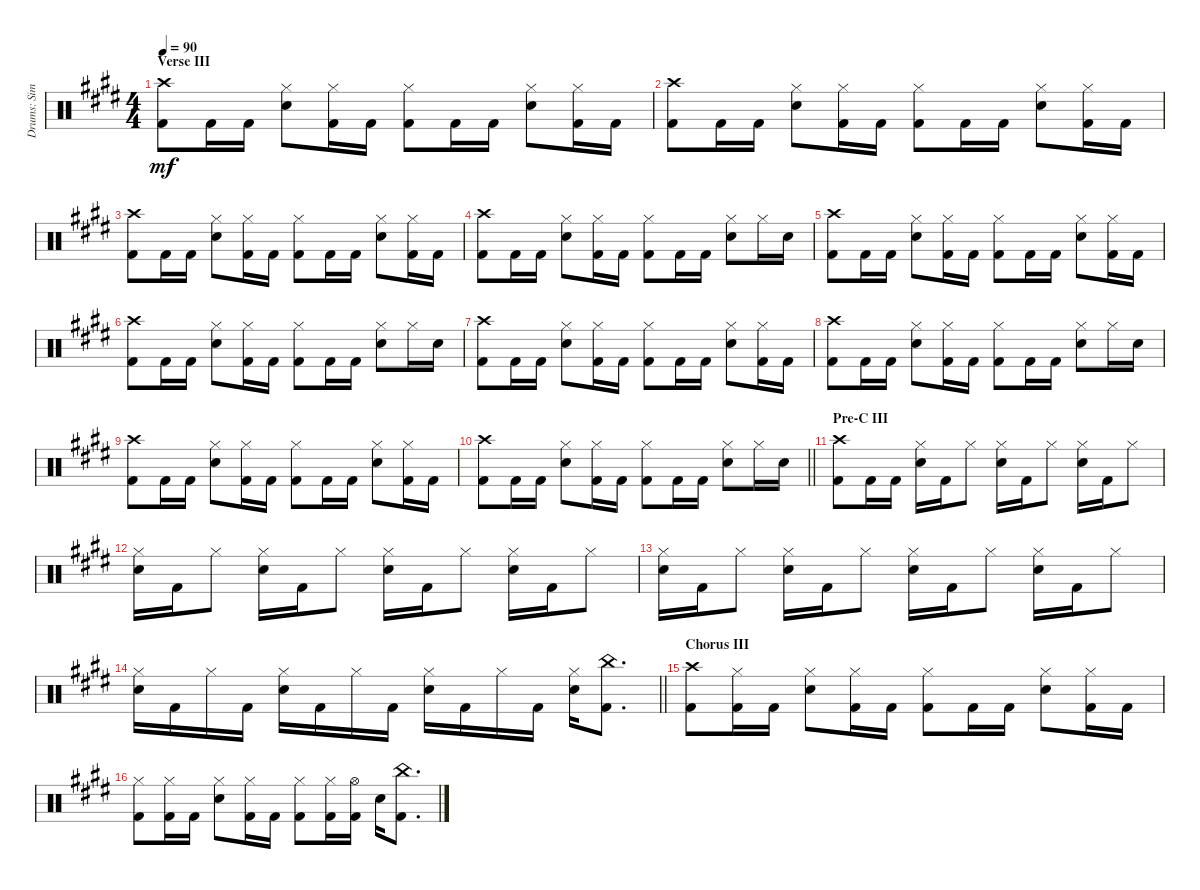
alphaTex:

\track ("Drums: Simon" "Drums: Sim") {instrument percussion}
\staff {score}
\articulation defaults
\ts (4 4)
\section ("" "Verse III")
\tempo 90
\clef neutral
\ks e
("Crash high (hit)" "Kick (hit) 2").8{dy mf} "Kick (hit) 2".16 "Kick (hit) 2".16 ("Hi-Hat (closed)" "Electric Snare (hit)").8 ("Hi-Hat (closed)" "Kick (hit) 2").16 "Kick (hit) 2".16 ("Hi-Hat (closed)" "Kick (hit) 2").8 "Kick (hit) 2".16 "Kick (hit) 2".16 ("Hi-Hat (closed)" "Electric Snare (hit)").8 ("Hi-Hat (closed)" "Kick (hit) 2").16 "Kick (hit) 2".16 |
("Crash high (hit)" "Kick (hit) 2").8 "Kick (hit) 2".16 "Kick (hit) 2".16 ("Hi-Hat (closed)" "Electric Snare (hit)").8 ("Hi-Hat (closed)" "Kick (hit) 2").16 "Kick (hit) 2".16 ("Hi-Hat (closed)" "Kick (hit) 2").8 "Kick (hit) 2".16 "Kick (hit) 2".16 ("Hi-Hat (closed)" "Electric Snare (hit)").8 ("Hi-Hat (closed)" "Kick (hit) 2").16 "Kick (hit) 2".16 |
("Crash high (hit)" "Kick (hit) 2").8 "Kick (hit) 2".16 "Kick (hit) 2".16 ("Hi-Hat (closed)" "Electric Snare (hit)").8 ("Hi-Hat (closed)" "Kick (hit) 2").16 "Kick (hit) 2".16 ("Hi-Hat (closed)" "Kick (hit) 2").8 "Kick (hit) 2".16 "Kick (hit) 2".16 ("Hi-Hat (closed)" "Electric Snare (hit)").8 ("Hi-Hat (closed)" "Kick (hit) 2").16 "Kick (hit) 2".16 |
("Crash high (hit)" "Kick (hit) 2").8 "Kick (hit) 2".16 "Kick (hit) 2".16 ("Hi-Hat (closed)" "Electric Snare (hit)").8 ("Hi-Hat (closed)" "Kick (hit) 2").16 "Kick (hit) 2".16 ("Hi-Hat (closed)" "Kick (hit) 2").8 "Kick (hit) 2".16 "Kick (hit) 2".16 ("Hi-Hat (closed)" "Electric Snare (hit)").8 "Hi-Hat (closed)".16 "Electric Snare (hit)".16 |
("Crash high (hit)" "Kick (hit) 2").8 "Kick (hit) 2".16 "Kick (hit) 2".16 ("Hi-Hat (closed)" "Electric Snare (hit)").8 ("Hi-Hat (closed)" "Kick (hit) 2").16 "Kick (hit) 2".16 ("Hi-Hat (closed)" "Kick (hit) 2").8 "Kick (hit) 2".16 "Kick (hit) 2".16 ("Hi-Hat (closed)" "Electric Snare (hit)").8 ("Hi-Hat (closed)" "Kick (hit) 2").16 "Kick (hit) 2".16 |
("Crash high (hit)" "Kick (hit) 2").8 "Kick (hit) 2".16 "Kick (hit) 2".16 ("Hi-Hat (closed)" "Electric Snare (hit)").8 ("Hi-Hat (closed)" "Kick (hit) 2").16 "Kick (hit) 2".16 ("Hi-Hat (closed)" "Kick (hit) 2").8 "Kick (hit) 2".16 "Kick (hit) 2".16 ("Hi-Hat (closed)" "Electric Snare (hit)").8 "Hi-Hat (closed)".16 "Electric Snare (hit)".16 |
("Crash high (hit)" "Kick (hit) 2").8 "Kick (hit) 2".16 "Kick (hit) 2".16 ("Hi-Hat (closed)" "Electric Snare (hit)").8 ("Hi-Hat (closed)" "Kick (hit) 2").16 "Kick (hit) 2".16 ("Hi-Hat (closed)" "Kick (hit) 2").8 "Kick (hit) 2".16 "Kick (hit) 2".16 ("Hi-Hat (closed)" "Electric Snare (hit)").8 ("Hi-Hat (closed)" "Kick (hit) 2").16 "Kick (hit) 2".16 |
("Crash high (hit)" "Kick (hit) 2").8 "Kick (hit) 2".16 "Kick (hit) 2".16 ("Hi-Hat (closed)" "Electric Snare (hit)").8 ("Hi-Hat (closed)" "Kick (hit) 2").16 "Kick (hit) 2".16 ("Hi-Hat (closed)" "Kick (hit) 2").8 "Kick (hit) 2".16 "Kick (hit) 2".16 ("Hi-Hat (closed)" "Electric Snare (hit)").8 "Hi-Hat (closed)".16 "Electric Snare (hit)".16 |
("Crash high (hit)" "Kick (hit) 2").8 "Kick (hit) 2".16 "Kick (hit) 2".16 ("Hi-Hat (closed)" "Electric Snare (hit)").8 ("Hi-Hat (closed)" "Kick (hit) 2").16 "Kick (hit) 2".16 ("Hi-Hat (closed)" "Kick (hit) 2").8 "Kick (hit) 2".16 "Kick (hit) 2".16 ("Hi-Hat (closed)" "Electric Snare (hit)").8 ("Hi-Hat (closed)" "Kick (hit) 2").16 "Kick (hit) 2".16 |
\barLineRight lightlight
("Crash high (hit)" "Kick (hit) 2").8 "Kick (hit) 2".16 "Kick (hit) 2".16 ("Hi-Hat (closed)" "Electric Snare (hit)").8 ("Hi-Hat (closed)" "Kick (hit) 2").16 "Kick (hit) 2".16 ("Hi-Hat (closed)" "Kick (hit) 2").8 "Kick (hit) 2".16 "Kick (hit) 2".16 ("Hi-Hat (closed)" "Electric Snare (hit)").8 "Hi-Hat (closed)".16 "Electric Snare (hit)".16 |
\section ("" "Pre-C III")
("Crash high (hit)" "Kick (hit) 2").8 "Kick (hit) 2".16 "Kick (hit) 2".16 ("Hi-Hat (closed)" "Electric Snare (hit)").16 "Kick (hit) 2".16 "Hi-Hat (closed)".8 ("Hi-Hat (closed)" "Electric Snare (hit)").16 "Kick (hit) 2".16 "Hi-Hat (closed)".8 ("Hi-Hat (closed)" "Electric Snare (hit)").16 "Kick (hit) 2".16 "Hi-Hat (closed)".8 |
("Hi-Hat (closed)" "Electric Snare (hit)").16 "Kick (hit) 2".16 "Hi-Hat (closed)".8 ("Hi-Hat (closed)" "Electric Snare (hit)").16 "Kick (hit) 2".16 "Hi-Hat (closed)".8 ("Hi-Hat (closed)" "Electric Snare (hit)").16 "Kick (hit) 2".16 "Hi-Hat (closed)".8 ("Hi-Hat (closed)" "Electric Snare (hit)").16 "Kick (hit) 2".16 "Hi-Hat (closed)".8 |
("Hi-Hat (closed)" "Electric Snare (hit)").16 "Kick (hit) 2".16 "Hi-Hat (closed)".8 ("Hi-Hat (closed)" "Electric Snare (hit)").16 "Kick (hit) 2".16 "Hi-Hat (closed)".8 ("Hi-Hat (closed)" "Electric Snare (hit)").16 "Kick (hit) 2".16 "Hi-Hat (closed)".8 ("Hi-Hat (closed)" "Electric Snare (hit)").16 "Kick (hit) 2".16 "Hi-Hat (closed)".8 |
\barLineRight lightlight
("Hi-Hat (closed)" "Electric Snare (hit)").16 "Kick (hit) 2".16 "Hi-Hat (closed)".16 "Kick (hit) 2".16 ("Hi-Hat (closed)" "Electric Snare (hit)").16 "Kick (hit) 2".16 "Hi-Hat (closed)".16 "Kick (hit) 2".16 ("Hi-Hat (closed)" "Electric Snare (hit)").16 "Kick (hit) 2".16 "Hi-Hat (closed)".16 "Kick (hit) 2".16 ("Hi-Hat (closed)" "Electric Snare (hit)").16 ("China (hit)" "Kick (hit) 2").8{d} |
\section ("" "Chorus III")
("Crash high (hit)" "Kick (hit) 2").8 ("Hi-Hat (closed)" "Kick (hit) 2").16 "Kick (hit) 2".16 ("Hi-Hat (closed)" "Electric Snare (hit)").8 ("Hi-Hat (closed)" "Kick (hit) 2").16 "Kick (hit) 2".16 ("Hi-Hat (closed)" "Kick (hit) 2").8 "Kick (hit) 2".16 "Kick (hit) 2".16 ("Hi-Hat (closed)" "Electric Snare (hit)").8 ("Hi-Hat (closed)" "Kick (hit) 2").16 "Kick (hit) 2".16 |
("Hi-Hat (closed)" "Kick (hit) 2").8 ("Hi-Hat (closed)" "Kick (hit) 2").16 "Kick (hit) 2".16 ("Hi-Hat (closed)" "Electric Snare (hit)").8 ("Hi-Hat (closed)" "Kick (hit) 2").16 "Kick (hit) 2".16 ("Hi-Hat (closed)" "Kick (hit) 2").8 ("Hi-Hat (closed)" "Kick (hit) 2").16 ("Hi-Hat (open)" "Kick (hit) 2").16 "Electric Snare (hit)".16 ("China (hit)" "Kick (hit) 2").8{d}
